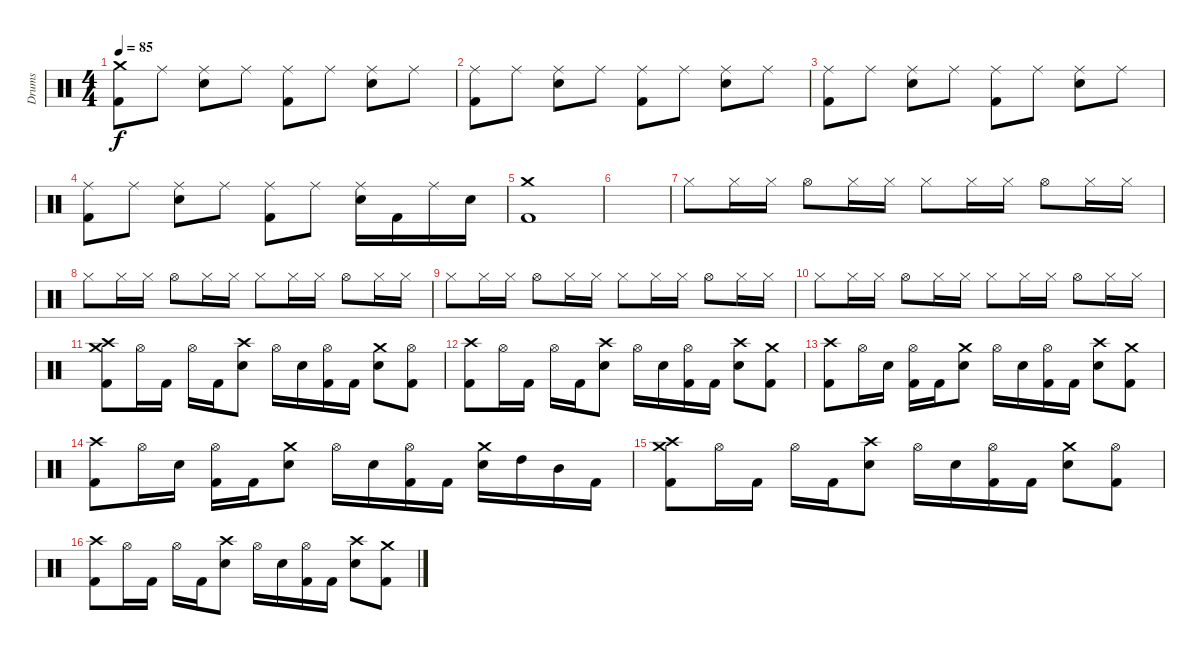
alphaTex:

\track ("Drums" "Drums") {instrument percussion}
\staff {score}
\articulation defaults
\ts (4 4)
\tempo 85
\clef neutral
\ks c
("Crash medium (hit)" "Kick (hit) 2").8{dy f} "Ride (middle)".8 ("Ride (middle)" "Snare (hit) 2").8 "Ride (middle)".8 ("Ride (middle)" "Kick (hit) 2").8 "Ride (middle)".8 ("Ride (middle)" "Snare (hit) 2").8 "Ride (middle)".8 |
("Ride (middle)" "Kick (hit) 2").8 "Ride (middle)".8 ("Ride (middle)" "Snare (hit) 2").8 "Ride (middle)".8 ("Ride (middle)" "Kick (hit) 2").8 "Ride (middle)".8 ("Ride (middle)" "Snare (hit) 2").8 "Ride (middle)".8 |
("Ride (middle)" "Kick (hit) 2").8 "Ride (middle)".8 ("Ride (middle)" "Snare (hit) 2").8 "Ride (middle)".8 ("Ride (middle)" "Kick (hit) 2").8 "Ride (middle)".8 ("Ride (middle)" "Snare (hit) 2").8 "Ride (middle)".8 |
("Ride (middle)" "Kick (hit) 2").8 "Ride (middle)".8 ("Ride (middle)" "Snare (hit) 2").8 "Ride (middle)".8 ("Ride (middle)" "Kick (hit) 2").8 "Ride (middle)".8 ("Ride (middle)" "Snare (hit) 2").16 "Kick (hit) 2".16 "Ride (middle)".16 "Snare (hit) 2".16 |
("Crash medium (hit)" "Kick (hit) 2").1 |
|
"Hi-Hat (closed)".8{volume 9} "Hi-Hat (closed)".16 "Hi-Hat (closed)".16 "Hi-Hat (open)".8 "Hi-Hat (closed)".16 "Hi-Hat (closed)".16 "Hi-Hat (closed)".8 "Hi-Hat (closed)".16 "Hi-Hat (closed)".16 "Hi-Hat (open)".8 "Hi-Hat (closed)".16 "Hi-Hat (closed)".16 |
"Hi-Hat (closed)".8{volume 9} "Hi-Hat (closed)".16 "Hi-Hat (closed)".16 "Hi-Hat (open)".8 "Hi-Hat (closed)".16 "Hi-Hat (closed)".16 "Hi-Hat (closed)".8 "Hi-Hat (closed)".16 "Hi-Hat (closed)".16 "Hi-Hat (open)".8 "Hi-Hat (closed)".16 "Hi-Hat (closed)".16 |
"Hi-Hat (closed)".8{volume 9} "Hi-Hat (closed)".16 "Hi-Hat (closed)".16 "Hi-Hat (open)".8 "Hi-Hat (closed)".16 "Hi-Hat (closed)".16 "Hi-Hat (closed)".8 "Hi-Hat (closed)".16 "Hi-Hat (closed)".16 "Hi-Hat (open)".8 "Hi-Hat (closed)".16 "Hi-Hat (closed)".16 |
"Hi-Hat (closed)".8{volume 9} "Hi-Hat (closed)".16 "Hi-Hat (closed)".16 "Hi-Hat (open)".8 "Hi-Hat (closed)".16 "Hi-Hat (closed)".16 "Hi-Hat (closed)".8 "Hi-Hat (closed)".16 "Hi-Hat (closed)".16 "Hi-Hat (open)".8 "Hi-Hat (closed)".16 "Hi-Hat (closed)".16 |
("Crash medium (hit)" "Crash high (hit)" "Kick (hit) 2").8{volume 13} "Hi-Hat (open)".16 "Kick (hit) 2".16 "Hi-Hat (open)".16 "Kick (hit) 2".16 ("Crash high (hit)" "Electric Snare (hit)").8 "Hi-Hat (open)".16 "Electric Snare (hit)".16 ("Hi-Hat (open)" "Kick (hit) 2").16 "Kick (hit) 2".16 ("Crash medium (hit)" "Electric Snare (hit)").8 ("Hi-Hat (open)" "Kick (hit) 2").8 |
("Crash high (hit)" "Kick (hit) 2").8 "Hi-Hat (open)".16 "Kick (hit) 2".16 "Hi-Hat (open)".16 "Kick (hit) 2".16 ("Crash high (hit)" "Electric Snare (hit)").8 "Hi-Hat (open)".16 "Electric Snare (hit)".16 ("Hi-Hat (open)" "Kick (hit) 2").16 "Kick (hit) 2".16 ("Crash high (hit)" "Electric Snare (hit)").8 ("Crash medium (hit)" "Kick (hit) 2").8 |
("Crash high (hit)" "Kick (hit) 2").8 "Hi-Hat (open)".16 "Electric Snare (hit)".16 ("Hi-Hat (open)" "Kick (hit) 2").16 "Kick (hit) 2".16 ("Crash medium (hit)" "Electric Snare (hit)").8 "Hi-Hat (open)".16 "Electric Snare (hit)".16 ("Hi-Hat (open)" "Kick (hit) 2").16 "Kick (hit) 2".16 ("Crash high (hit)" "Electric Snare (hit)").8 ("Crash medium (hit)" "Kick (hit) 2").8 |
("Crash high (hit)" "Kick (hit) 2").8 "Hi-Hat (open)".16 "Electric Snare (hit)".16 ("Hi-Hat (open)" "Kick (hit) 2").16 "Kick (hit) 2".16 ("Crash medium (hit)" "Electric Snare (hit)").8 "Hi-Hat (open)".16 "Electric Snare (hit)".16 ("Hi-Hat (open)" "Kick (hit) 2").16 "Kick (hit) 2".16 ("Crash medium (hit)" "Electric Snare (hit)").16 "High Tom (hit)".16 "Mid Tom (hit)".16 "Kick (hit) 2".16 |
("Crash medium (hit)" "Crash high (hit)" "Kick (hit) 2").8 "Hi-Hat (open)".16 "Kick (hit) 2".16 "Hi-Hat (open)".16 "Kick (hit) 2".16 ("Crash high (hit)" "Electric Snare (hit)").8 "Hi-Hat (open)".16 "Electric Snare (hit)".16 ("Hi-Hat (open)" "Kick (hit) 2").16 "Kick (hit) 2".16 ("Crash medium (hit)" "Electric Snare (hit)").8 ("Hi-Hat (open)" "Kick (hit) 2").8 |
("Crash high (hit)" "Kick (hit) 2").8 "Hi-Hat (open)".16 "Kick (hit) 2".16 "Hi-Hat (open)".16 "Kick (hit) 2".16 ("Crash high (hit)" "Electric Snare (hit)").8 "Hi-Hat (open)".16 "Electric Snare (hit)".16 ("Hi-Hat (open)" "Kick (hit) 2").16 "Kick (hit) 2".16 ("Crash high (hit)" "Electric Snare (hit)").8 ("Crash medium (hit)" "Kick (hit) 2").8
